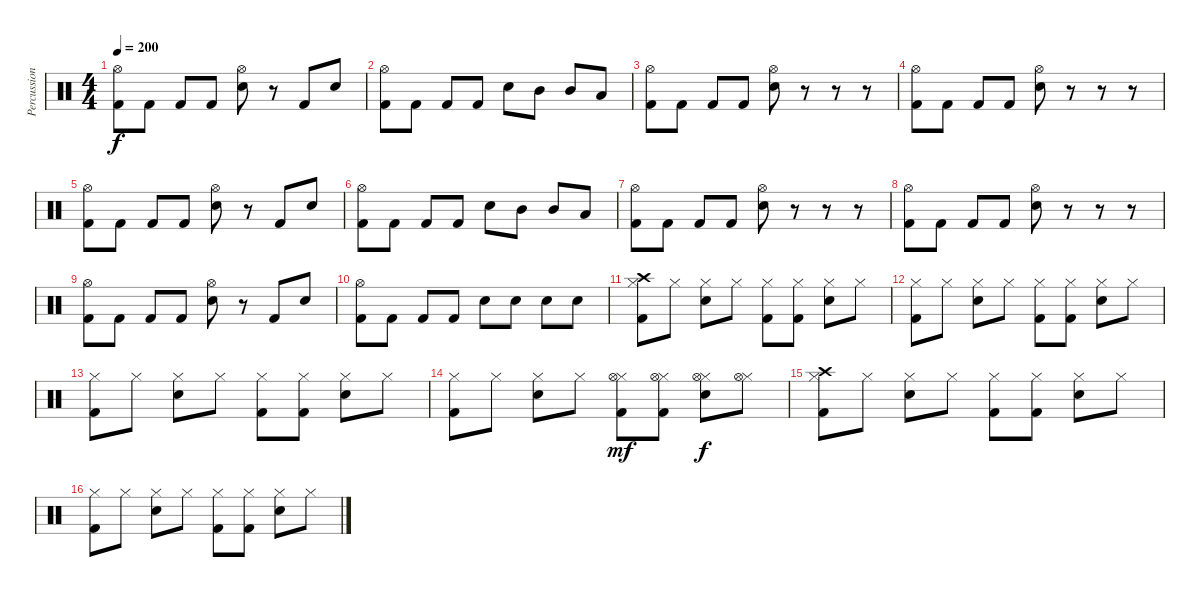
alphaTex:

\track ("Percussions" "Percussion") {instrument percussion}
\staff {score}
\articulation defaults
\ts (4 4)
\tempo 200
\clef neutral
\ks c
("Hi-Hat (open)" "Kick (hit) 2").8{dy f} "Kick (hit) 2".8 "Kick (hit) 2".8 "Kick (hit) 2".8 ("Hi-Hat (open)" "Electric Snare (hit)").8 r.8 "Kick (hit) 2".8 "Electric Snare (hit)".8 |
("Hi-Hat (open)" "Kick (hit) 2").8 "Kick (hit) 2".8 "Kick (hit) 2".8 "Kick (hit) 2".8 "Electric Snare (hit)".8 "Mid Tom (hit)".8 "Mid Tom (hit)".8 "Low Tom (hit)".8 |
("Hi-Hat (open)" "Kick (hit) 2").8 "Kick (hit) 2".8 "Kick (hit) 2".8 "Kick (hit) 2".8 ("Hi-Hat (open)" "Electric Snare (hit)").8 r.8 r.8 r.8 |
("Hi-Hat (open)" "Kick (hit) 2").8 "Kick (hit) 2".8 "Kick (hit) 2".8 "Kick (hit) 2".8 ("Hi-Hat (open)" "Electric Snare (hit)").8 r.8 r.8 r.8 |
("Hi-Hat (open)" "Kick (hit) 2").8 "Kick (hit) 2".8 "Kick (hit) 2".8 "Kick (hit) 2".8 ("Hi-Hat (open)" "Electric Snare (hit)").8 r.8 "Kick (hit) 2".8 "Electric Snare (hit)".8 |
("Hi-Hat (open)" "Kick (hit) 2").8 "Kick (hit) 2".8 "Kick (hit) 2".8 "Kick (hit) 2".8 "Electric Snare (hit)".8 "Mid Tom (hit)".8 "Mid Tom (hit)".8 "Low Tom (hit)".8 |
("Hi-Hat (open)" "Kick (hit) 2").8 "Kick (hit) 2".8 "Kick (hit) 2".8 "Kick (hit) 2".8 ("Hi-Hat (open)" "Electric Snare (hit)").8 r.8 r.8 r.8 |
("Hi-Hat (open)" "Kick (hit) 2").8 "Kick (hit) 2".8 "Kick (hit) 2".8 "Kick (hit) 2".8 ("Hi-Hat (open)" "Electric Snare (hit)").8 r.8 r.8 r.8 |
("Hi-Hat (open)" "Kick (hit) 2").8 "Kick (hit) 2".8 "Kick (hit) 2".8 "Kick (hit) 2".8 ("Hi-Hat (open)" "Electric Snare (hit)").8 r.8 "Kick (hit) 2".8 "Electric Snare (hit)".8 |
("Hi-Hat (open)" "Kick (hit) 2").8 "Kick (hit) 2".8 "Kick (hit) 2".8 "Kick (hit) 2".8 "Electric Snare (hit)".8 "Electric Snare (hit)".8 "Electric Snare (hit)".8 "Electric Snare (hit)".8 |
("Crash high (hit)" "Hi-Hat (closed)" "Kick (hit) 2").8 "Hi-Hat (closed)".8 ("Hi-Hat (closed)" "Electric Snare (hit)").8 "Hi-Hat (closed)".8 ("Hi-Hat (closed)" "Kick (hit) 2").8 ("Hi-Hat (closed)" "Kick (hit) 2").8 ("Hi-Hat (closed)" "Electric Snare (hit)").8 "Hi-Hat (closed)".8 |
("Hi-Hat (closed)" "Kick (hit) 2").8 "Hi-Hat (closed)".8 ("Hi-Hat (closed)" "Electric Snare (hit)").8 "Hi-Hat (closed)".8 ("Hi-Hat (closed)" "Kick (hit) 2").8 ("Hi-Hat (closed)" "Kick (hit) 2").8 ("Hi-Hat (closed)" "Electric Snare (hit)").8 "Hi-Hat (closed)".8 |
("Hi-Hat (closed)" "Kick (hit) 2").8 "Hi-Hat (closed)".8 ("Hi-Hat (closed)" "Electric Snare (hit)").8 "Hi-Hat (closed)".8 ("Hi-Hat (closed)" "Kick (hit) 2").8 ("Hi-Hat (closed)" "Kick (hit) 2").8 ("Hi-Hat (closed)" "Electric Snare (hit)").8 "Hi-Hat (closed)".8 |
("Hi-Hat (closed)" "Kick (hit) 2").8 "Hi-Hat (closed)".8 ("Hi-Hat (closed)" "Electric Snare (hit)").8 "Hi-Hat (closed)".8 ("Hi-Hat (closed)" "Hi-Hat (open)" "Kick (hit) 2").8{dy mf} ("Hi-Hat (closed)" "Hi-Hat (open)" "Kick (hit) 2").8 ("Hi-Hat (closed)" "Hi-Hat (open)" "Electric Snare (hit)").8{dy f} ("Hi-Hat (closed)" "Hi-Hat (open)").8 |
("Crash high (hit)" "Hi-Hat (closed)" "Kick (hit) 2").8 "Hi-Hat (closed)".8 ("Hi-Hat (closed)" "Electric Snare (hit)").8 "Hi-Hat (closed)".8 ("Hi-Hat (closed)" "Kick (hit) 2").8 ("Hi-Hat (closed)" "Kick (hit) 2").8 ("Hi-Hat (closed)" "Electric Snare (hit)").8 "Hi-Hat (closed)".8 |
("Hi-Hat (closed)" "Kick (hit) 2").8 "Hi-Hat (closed)".8 ("Hi-Hat (closed)" "Electric Snare (hit)").8 "Hi-Hat (closed)".8 ("Hi-Hat (closed)" "Kick (hit) 2").8 ("Hi-Hat (closed)" "Kick (hit) 2").8 ("Hi-Hat (closed)" "Electric Snare (hit)").8 "Hi-Hat (closed)".8
